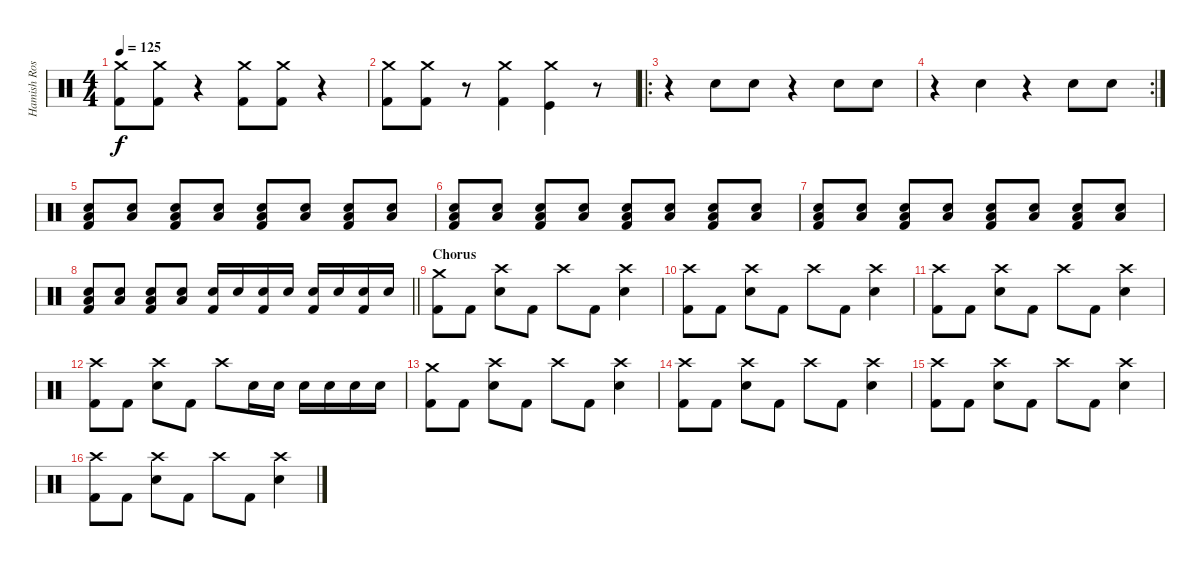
\track ("Hamish Rosser" "Hamish Ros") {instrument percussion}
\staff {score}
\articulation defaults
\ts (4 4)
\tempo 125
\clef neutral
\ks c
("Crash medium (hit)" "Kick (hit) 2").8{dy f} ("Crash medium (hit)" "Kick (hit) 2").8 r.4 ("Crash medium (hit)" "Kick (hit) 2").8 ("Crash medium (hit)" "Kick (hit) 2").8 r.4 |
("Crash medium (hit)" "Kick (hit) 2").8 ("Crash medium (hit)" "Kick (hit) 2").8 r.8 ("Crash medium (hit)" "Kick (hit) 2").4 ("Crash medium (hit)" "Kick (hit)").4 r.8 |
\ro
r.4 "Hand Clap (hit)".8 "Hand Clap (hit)".8 r.4 "Hand Clap (hit)".8 "Hand Clap (hit)".8 |
\rc 2
r.4 "Hand Clap (hit)".4 r.4 "Hand Clap (hit)".8 "Hand Clap (hit)".8 |
("Low Floor Tom (hit)" "Electric Snare (hit)" "Kick (hit) 2").8 ("Low Floor Tom (hit)" "Electric Snare (hit)").8 ("Low Floor Tom (hit)" "Electric Snare (hit)" "Kick (hit) 2").8 ("Low Floor Tom (hit)" "Electric Snare (hit)").8 ("Low Floor Tom (hit)" "Electric Snare (hit)" "Kick (hit) 2").8 ("Low Floor Tom (hit)" "Electric Snare (hit)").8 ("Low Floor Tom (hit)" "Electric Snare (hit)" "Kick (hit) 2").8 ("Low Floor Tom (hit)" "Electric Snare (hit)").8 |
("Low Floor Tom (hit)" "Electric Snare (hit)" "Kick (hit) 2").8 ("Low Floor Tom (hit)" "Electric Snare (hit)").8 ("Low Floor Tom (hit)" "Electric Snare (hit)" "Kick (hit) 2").8 ("Low Floor Tom (hit)" "Electric Snare (hit)").8 ("Low Floor Tom (hit)" "Electric Snare (hit)" "Kick (hit) 2").8 ("Low Floor Tom (hit)" "Electric Snare (hit)").8 ("Low Floor Tom (hit)" "Electric Snare (hit)" "Kick (hit) 2").8 ("Low Floor Tom (hit)" "Electric Snare (hit)").8 |
("Low Floor Tom (hit)" "Electric Snare (hit)" "Kick (hit) 2").8 ("Low Floor Tom (hit)" "Electric Snare (hit)").8 ("Low Floor Tom (hit)" "Electric Snare (hit)" "Kick (hit) 2").8 ("Low Floor Tom (hit)" "Electric Snare (hit)").8 ("Low Floor Tom (hit)" "Electric Snare (hit)" "Kick (hit) 2").8 ("Low Floor Tom (hit)" "Electric Snare (hit)").8 ("Low Floor Tom (hit)" "Electric Snare (hit)" "Kick (hit) 2").8 ("Low Floor Tom (hit)" "Electric Snare (hit)").8 |
\barLineRight lightlight
("Low Floor Tom (hit)" "Electric Snare (hit)" "Kick (hit) 2").8 ("Low Floor Tom (hit)" "Electric Snare (hit)").8 ("Low Floor Tom (hit)" "Electric Snare (hit)" "Kick (hit) 2").8 ("Low Floor Tom (hit)" "Electric Snare (hit)").8 ("Electric Snare (hit)" "Kick (hit) 2").16 "Electric Snare (hit)".16 ("Electric Snare (hit)" "Kick (hit) 2").16 "Electric Snare (hit)".16 ("Electric Snare (hit)" "Kick (hit) 2").16 "Electric Snare (hit)".16 ("Electric Snare (hit)" "Kick (hit) 2").16 "Electric Snare (hit)".16 |
\section ("" "Chorus")
("Crash medium (hit)" "Kick (hit) 2").8 "Kick (hit) 2".8 ("Crash high (hit)" "Electric Snare (hit)").8 "Kick (hit) 2".8 "Crash high (hit)".8 "Kick (hit) 2".8 ("Crash high (hit)" "Electric Snare (hit)").4 |
("Crash high (hit)" "Kick (hit) 2").8 "Kick (hit) 2".8 ("Crash high (hit)" "Electric Snare (hit)").8 "Kick (hit) 2".8 "Crash high (hit)".8 "Kick (hit) 2".8 ("Crash high (hit)" "Electric Snare (hit)").4 |
("Crash high (hit)" "Kick (hit) 2").8 "Kick (hit) 2".8 ("Crash high (hit)" "Electric Snare (hit)").8 "Kick (hit) 2".8 "Crash high (hit)".8 "Kick (hit) 2".8 ("Crash high (hit)" "Electric Snare (hit)").4 |
("Crash high (hit)" "Kick (hit) 2").8 "Kick (hit) 2".8 ("Crash high (hit)" "Electric Snare (hit)").8 "Kick (hit) 2".8 "Crash high (hit)".8 "Electric Snare (hit)".16 "Electric Snare (hit)".16 "Electric Snare (hit)".16 "Electric Snare (hit)".16 "Electric Snare (hit)".16 "Electric Snare (hit)".16 |
("Crash medium (hit)" "Kick (hit) 2").8 "Kick (hit) 2".8 ("Crash high (hit)" "Electric Snare (hit)").8 "Kick (hit) 2".8 "Crash high (hit)".8 "Kick (hit) 2".8 ("Crash high (hit)" "Electric Snare (hit)").4 |
("Crash high (hit)" "Kick (hit) 2").8 "Kick (hit) 2".8 ("Crash high (hit)" "Electric Snare (hit)").8 "Kick (hit) 2".8 "Crash high (hit)".8 "Kick (hit) 2".8 ("Crash high (hit)" "Electric Snare (hit)").4 |
("Crash high (hit)" "Kick (hit) 2").8 "Kick (hit) 2".8 ("Crash high (hit)" "Electric Snare (hit)").8 "Kick (hit) 2".8 "Crash high (hit)".8 "Kick (hit) 2".8 ("Crash high (hit)" "Electric Snare (hit)").4 |
("Crash high (hit)" "Kick (hit) 2").8 "Kick (hit) 2".8 ("Crash high (hit)" "Electric Snare (hit)").8 "Kick (hit) 2".8 "Crash high (hit)".8 "Kick (hit) 2".8 ("Crash high (hit)" "Electric Snare (hit)").4
